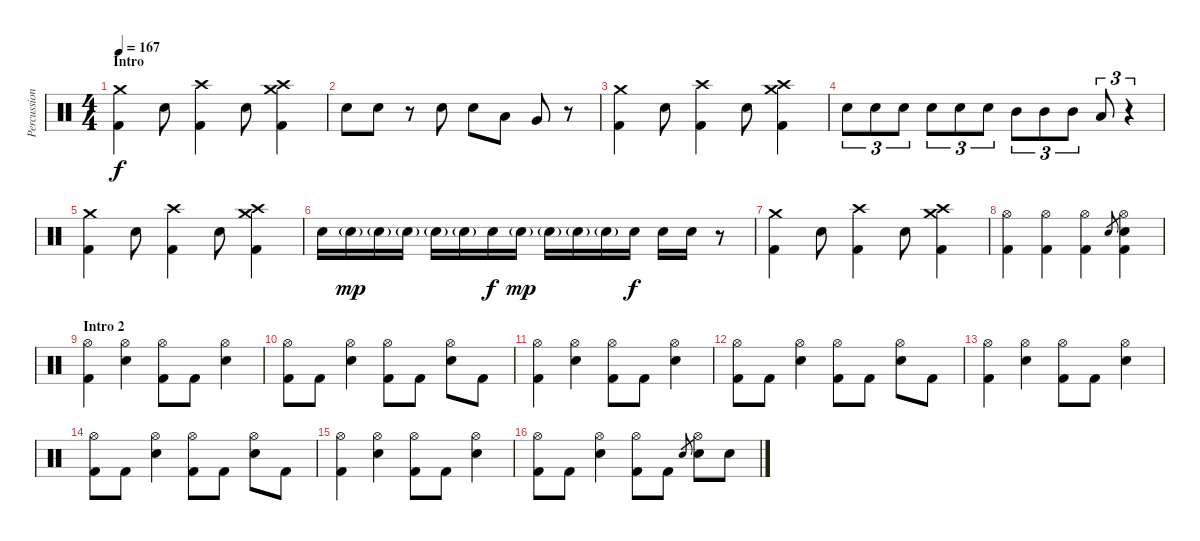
\track ("Percussion" "Percussion") {instrument percussion}
\staff {score}
\articulation defaults
\ts (4 4)
\section ("" "Intro")
\tempo 167
\clef neutral
\ks c
("Crash medium (hit)" "Kick (hit) 2").4{dy f} "Electric Snare (hit)".8 ("Crash high (hit)" "Kick (hit) 2").4 "Electric Snare (hit)".8 ("Crash medium (hit)" "Crash high (hit)" "Kick (hit) 2").4 |
"Electric Snare (hit)".8 "Electric Snare (hit)".8 r.8 "Electric Snare (hit)".8 "Electric Snare (hit)".8 "Low Tom (hit)".8 "Very Low Tom (hit)".8 r.8 |
("Crash medium (hit)" "Kick (hit) 2").4 "Electric Snare (hit)".8 ("Crash high (hit)" "Kick (hit) 2").4 "Electric Snare (hit)".8 ("Crash medium (hit)" "Crash high (hit)" "Kick (hit) 2").4 |
"Electric Snare (hit)".8{tu (3 2)} "Electric Snare (hit)".8{tu (3 2)} "Electric Snare (hit)".8{tu (3 2)} "Electric Snare (hit)".8{tu (3 2)} "Electric Snare (hit)".8{tu (3 2)} "Electric Snare (hit)".8{tu (3 2)} "Mid Tom (hit)".8{tu (3 2)} "Mid Tom (hit)".8{tu (3 2)} "Mid Tom (hit)".8{tu (3 2)} "Low Tom (hit)".8{tu (3 2)} r.4{tu (3 2)} |
("Crash medium (hit)" "Kick (hit) 2").4 "Electric Snare (hit)".8 ("Crash high (hit)" "Kick (hit) 2").4 "Electric Snare (hit)".8 ("Crash medium (hit)" "Crash high (hit)" "Kick (hit) 2").4 |
"Electric Snare (hit)".16 "Electric Snare (hit)"{g}.16{dy mp} "Electric Snare (hit)"{g}.16 "Electric Snare (hit)"{g}.16 "Electric Snare (hit)"{g}.16 "Electric Snare (hit)"{g}.16 "Electric Snare (hit)".16{dy f} "Electric Snare (hit)"{g}.16{dy mp} "Electric Snare (hit)"{g}.16 "Electric Snare (hit)"{g}.16 "Electric Snare (hit)"{g}.16 "Electric Snare (hit)".16{dy f} "Electric Snare (hit)".16 "Electric Snare (hit)".16 r.8 |
("Crash medium (hit)" "Kick (hit) 2").4 "Electric Snare (hit)".8 ("Crash high (hit)" "Kick (hit) 2").4 "Electric Snare (hit)".8 ("Crash medium (hit)" "Crash high (hit)" "Kick (hit) 2").4 |
("Hi-Hat (open)" "Kick (hit) 2").4 ("Hi-Hat (open)" "Kick (hit) 2").4 ("Hi-Hat (open)" "Kick (hit) 2").4 "Electric Snare (hit)".8{gr} ("Hi-Hat (open)" "Electric Snare (hit)" "Kick (hit) 2").4 |
\section ("" "Intro 2")
("Hi-Hat (open)" "Kick (hit) 2").4 ("Hi-Hat (open)" "Electric Snare (hit)").4 ("Hi-Hat (open)" "Kick (hit) 2").8 "Kick (hit) 2".8 ("Hi-Hat (open)" "Electric Snare (hit)").4 |
("Hi-Hat (open)" "Kick (hit) 2").8 "Kick (hit) 2".8 ("Hi-Hat (open)" "Electric Snare (hit)").4 ("Hi-Hat (open)" "Kick (hit) 2").8 "Kick (hit) 2".8 ("Hi-Hat (open)" "Electric Snare (hit)").8 "Kick (hit) 2".8 |
("Hi-Hat (open)" "Kick (hit) 2").4 ("Hi-Hat (open)" "Electric Snare (hit)").4 ("Hi-Hat (open)" "Kick (hit) 2").8 "Kick (hit) 2".8 ("Hi-Hat (open)" "Electric Snare (hit)").4 |
("Hi-Hat (open)" "Kick (hit) 2").8 "Kick (hit) 2".8 ("Hi-Hat (open)" "Electric Snare (hit)").4 ("Hi-Hat (open)" "Kick (hit) 2").8 "Kick (hit) 2".8 ("Hi-Hat (open)" "Electric Snare (hit)").8 "Kick (hit) 2".8 |
("Hi-Hat (open)" "Kick (hit) 2").4 ("Hi-Hat (open)" "Electric Snare (hit)").4 ("Hi-Hat (open)" "Kick (hit) 2").8 "Kick (hit) 2".8 ("Hi-Hat (open)" "Electric Snare (hit)").4 |
("Hi-Hat (open)" "Kick (hit) 2").8 "Kick (hit) 2".8 ("Hi-Hat (open)" "Electric Snare (hit)").4 ("Hi-Hat (open)" "Kick (hit) 2").8 "Kick (hit) 2".8 ("Hi-Hat (open)" "Electric Snare (hit)").8 "Kick (hit) 2".8 |
("Hi-Hat (open)" "Kick (hit) 2").4 ("Hi-Hat (open)" "Electric Snare (hit)").4 ("Hi-Hat (open)" "Kick (hit) 2").8 "Kick (hit) 2".8 ("Hi-Hat (open)" "Electric Snare (hit)").4 |
("Hi-Hat (open)" "Kick (hit) 2").8 "Kick (hit) 2".8 ("Hi-Hat (open)" "Electric Snare (hit)").4 ("Hi-Hat (open)" "Kick (hit) 2").8 "Kick (hit) 2".8 "Electric Snare (hit)".8{gr} ("Hi-Hat (open)" "Electric Snare (hit)").8 "Electric Snare (hit)".8
